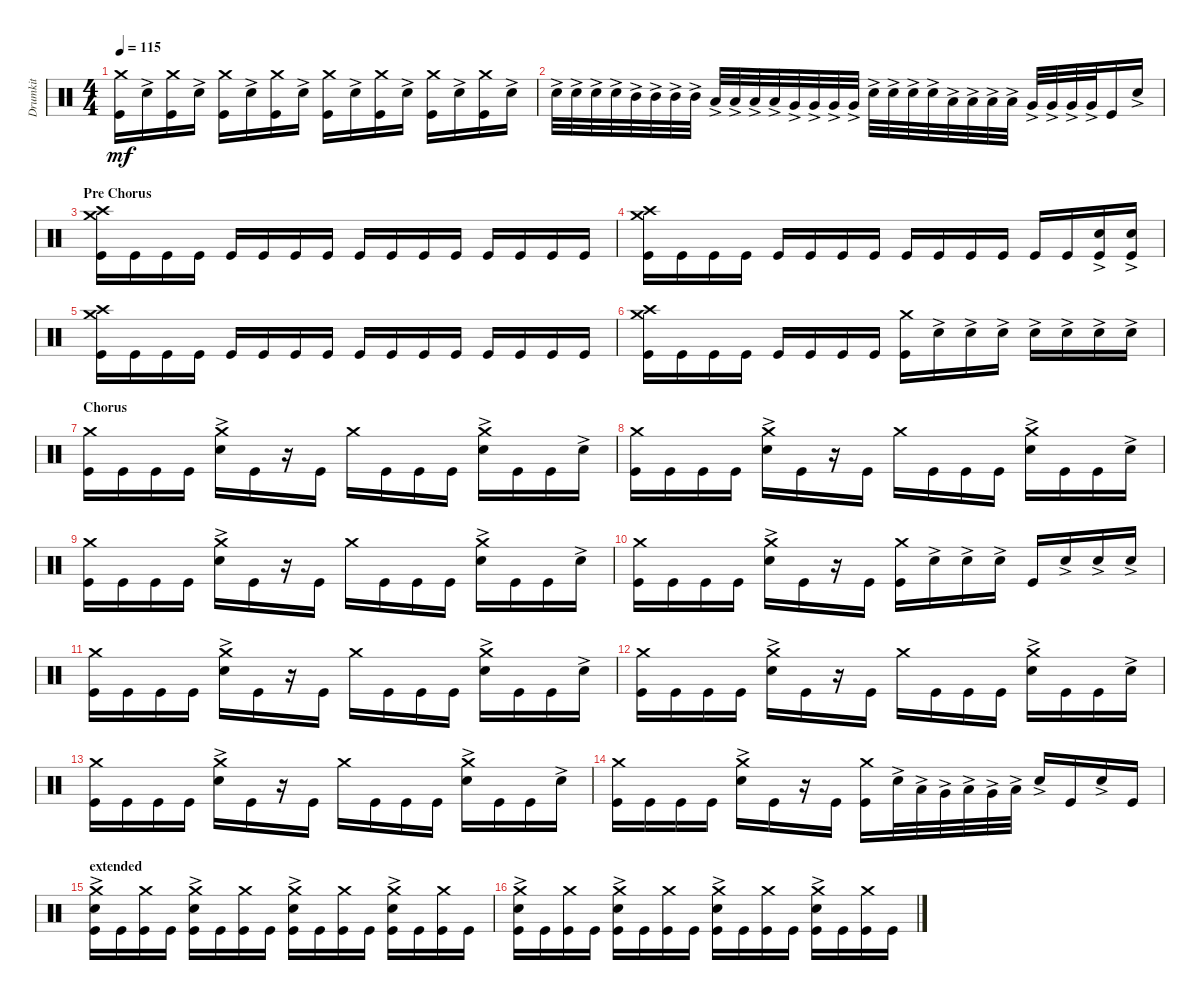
\track ("Drumkit" "Drumkit") {instrument percussion}
\staff {score}
\articulation defaults
\ts (4 4)
\tempo 115
\clef neutral
\ks c
("Kick (hit)" "Crash medium (hit)").16{dy mf} "Snare (hit) 2"{ac}.16 ("Kick (hit)" "Crash medium (hit)").16 "Snare (hit) 2"{ac}.16 ("Kick (hit)" "Crash medium (hit)").16 "Snare (hit) 2"{ac}.16 ("Kick (hit)" "Crash medium (hit)").16 "Snare (hit) 2"{ac}.16 ("Kick (hit)" "Crash medium (hit)").16 "Snare (hit) 2"{ac}.16 ("Kick (hit)" "Crash medium (hit)").16 "Snare (hit) 2"{ac}.16 ("Kick (hit)" "Crash medium (hit)").16 "Snare (hit) 2"{ac}.16 ("Kick (hit)" "Crash medium (hit)").16 "Snare (hit) 2"{ac}.16 |
"Snare (hit) 2"{ac}.32 "Snare (hit) 2"{ac}.32 "Snare (hit) 2"{ac}.32 "Snare (hit) 2"{ac}.32 "Mid Tom (hit)"{ac}.32 "Mid Tom (hit)"{ac}.32 "Mid Tom (hit)"{ac}.32 "Mid Tom (hit)"{ac}.32 "Low Tom (hit)"{ac}.32 "Low Tom (hit)"{ac}.32 "Low Tom (hit)"{ac}.32 "Low Tom (hit)"{ac}.32 "Very Low Tom (hit)"{ac}.32 "Very Low Tom (hit)"{ac}.32 "Very Low Tom (hit)"{ac}.32 "Very Low Tom (hit)"{ac}.32 "Snare (hit) 2"{ac}.32 "Snare (hit) 2"{ac}.32 "Snare (hit) 2"{ac}.32 "Snare (hit) 2"{ac}.32 "Low Tom (hit)"{ac}.32 "Low Tom (hit)"{ac}.32 "Low Tom (hit)"{ac}.32 "Low Tom (hit)"{ac}.32 "Very Low Tom (hit)"{ac}.32 "Very Low Tom (hit)"{ac}.32 "Very Low Tom (hit)"{ac}.32 "Very Low Tom (hit)"{ac}.32 "Kick (hit)".16 "Snare (hit) 2"{ac}.16 |
\section ("" "Pre Chorus")
("Kick (hit)" "Crash medium (hit)" "Crash high (hit)").16 "Kick (hit)".16 "Kick (hit)".16 "Kick (hit)".16 "Kick (hit)".16 "Kick (hit)".16 "Kick (hit)".16 "Kick (hit)".16 "Kick (hit)".16 "Kick (hit)".16 "Kick (hit)".16 "Kick (hit)".16 "Kick (hit)".16 "Kick (hit)".16 "Kick (hit)".16 "Kick (hit)".16 |
("Kick (hit)" "Crash medium (hit)" "Crash high (hit)").16 "Kick (hit)".16 "Kick (hit)".16 "Kick (hit)".16 "Kick (hit)".16 "Kick (hit)".16 "Kick (hit)".16 "Kick (hit)".16 "Kick (hit)".16 "Kick (hit)".16 "Kick (hit)".16 "Kick (hit)".16 "Kick (hit)".16 "Kick (hit)".16 ("Kick (hit)" "Snare (hit) 2"{ac}).16 ("Kick (hit)" "Snare (hit) 2"{ac}).16 |
("Kick (hit)" "Crash medium (hit)" "Crash high (hit)").16 "Kick (hit)".16 "Kick (hit)".16 "Kick (hit)".16 "Kick (hit)".16 "Kick (hit)".16 "Kick (hit)".16 "Kick (hit)".16 "Kick (hit)".16 "Kick (hit)".16 "Kick (hit)".16 "Kick (hit)".16 "Kick (hit)".16 "Kick (hit)".16 "Kick (hit)".16 "Kick (hit)".16 |
("Kick (hit)" "Crash medium (hit)" "Crash high (hit)").16 "Kick (hit)".16 "Kick (hit)".16 "Kick (hit)".16 "Kick (hit)".16 "Kick (hit)".16 "Kick (hit)".16 "Kick (hit)".16 ("Kick (hit)" "Crash medium (hit)").16 "Snare (hit) 2"{ac}.16 "Snare (hit) 2"{ac}.16 "Snare (hit) 2"{ac}.16 "Snare (hit) 2"{ac}.16 "Snare (hit) 2"{ac}.16 "Snare (hit) 2"{ac}.16 "Snare (hit) 2"{ac}.16 |
\section ("" "Chorus")
("Crash medium (hit)" "Kick (hit)").16 "Kick (hit)".16 "Kick (hit)".16 "Kick (hit)".16 ("Crash medium (hit)" "Snare (hit) 2"{ac}).16 "Kick (hit)".16 r.16 "Kick (hit)".16 "Crash medium (hit)".16 "Kick (hit)".16 "Kick (hit)".16 "Kick (hit)".16 ("Crash medium (hit)" "Snare (hit) 2"{ac}).16 "Kick (hit)".16 "Kick (hit)".16 "Snare (hit) 2"{ac}.16 |
("Crash medium (hit)" "Kick (hit)").16 "Kick (hit)".16 "Kick (hit)".16 "Kick (hit)".16 ("Crash medium (hit)" "Snare (hit) 2"{ac}).16 "Kick (hit)".16 r.16 "Kick (hit)".16 "Crash medium (hit)".16 "Kick (hit)".16 "Kick (hit)".16 "Kick (hit)".16 ("Crash medium (hit)" "Snare (hit) 2"{ac}).16 "Kick (hit)".16 "Kick (hit)".16 "Snare (hit) 2"{ac}.16 |
("Crash medium (hit)" "Kick (hit)").16 "Kick (hit)".16 "Kick (hit)".16 "Kick (hit)".16 ("Crash medium (hit)" "Snare (hit) 2"{ac}).16 "Kick (hit)".16 r.16 "Kick (hit)".16 "Crash medium (hit)".16 "Kick (hit)".16 "Kick (hit)".16 "Kick (hit)".16 ("Crash medium (hit)" "Snare (hit) 2"{ac}).16 "Kick (hit)".16 "Kick (hit)".16 "Snare (hit) 2"{ac}.16 |
("Crash medium (hit)" "Kick (hit)").16 "Kick (hit)".16 "Kick (hit)".16 "Kick (hit)".16 ("Crash medium (hit)" "Snare (hit) 2"{ac}).16 "Kick (hit)".16 r.16 "Kick (hit)".16 ("Kick (hit)" "Crash medium (hit)").16 "Snare (hit) 2"{ac}.16 "Snare (hit) 2"{ac}.16 "Snare (hit) 2"{ac}.16 "Kick (hit)".16 "Snare (hit) 2"{ac}.16 "Snare (hit) 2"{ac}.16 "Snare (hit) 2"{ac}.16 |
("Crash medium (hit)" "Kick (hit)").16 "Kick (hit)".16 "Kick (hit)".16 "Kick (hit)".16 ("Crash medium (hit)" "Snare (hit) 2"{ac}).16 "Kick (hit)".16 r.16 "Kick (hit)".16 "Crash medium (hit)".16 "Kick (hit)".16 "Kick (hit)".16 "Kick (hit)".16 ("Crash medium (hit)" "Snare (hit) 2"{ac}).16 "Kick (hit)".16 "Kick (hit)".16 "Snare (hit) 2"{ac}.16 |
("Crash medium (hit)" "Kick (hit)").16 "Kick (hit)".16 "Kick (hit)".16 "Kick (hit)".16 ("Crash medium (hit)" "Snare (hit) 2"{ac}).16 "Kick (hit)".16 r.16 "Kick (hit)".16 "Crash medium (hit)".16 "Kick (hit)".16 "Kick (hit)".16 "Kick (hit)".16 ("Crash medium (hit)" "Snare (hit) 2"{ac}).16 "Kick (hit)".16 "Kick (hit)".16 "Snare (hit) 2"{ac}.16 |
("Crash medium (hit)" "Kick (hit)").16 "Kick (hit)".16 "Kick (hit)".16 "Kick (hit)".16 ("Crash medium (hit)" "Snare (hit) 2"{ac}).16 "Kick (hit)".16 r.16 "Kick (hit)".16 "Crash medium (hit)".16 "Kick (hit)".16 "Kick (hit)".16 "Kick (hit)".16 ("Crash medium (hit)" "Snare (hit) 2"{ac}).16 "Kick (hit)".16 "Kick (hit)".16 "Snare (hit) 2"{ac}.16 |
("Crash medium (hit)" "Kick (hit)").16 "Kick (hit)".16 "Kick (hit)".16 "Kick (hit)".16 ("Crash medium (hit)" "Snare (hit) 2"{ac}).16 "Kick (hit)".16 r.16 "Kick (hit)".16 ("Kick (hit)" "Crash medium (hit)").16 "Snare (hit) 2"{ac}.32 "Low Tom (hit)"{ac}.32 "Very Low Tom (hit)"{ac}.32 "Low Tom (hit)"{ac}.32 "Very Low Tom (hit)"{ac}.32 "Low Floor Tom (hit)"{ac}.32 "Snare (hit) 2"{ac}.16 "Kick (hit)".16 "Snare (hit) 2"{ac}.16 "Kick (hit)".16 |
\section ("" "extended")
("Kick (hit)" "Snare (hit) 2"{ac} "Crash medium (hit)").16 "Kick (hit)".16 ("Kick (hit)" "Crash medium (hit)").16 "Kick (hit)".16 ("Kick (hit)" "Snare (hit) 2"{ac} "Crash medium (hit)").16 "Kick (hit)".16 ("Kick (hit)" "Crash medium (hit)").16 "Kick (hit)".16 ("Kick (hit)" "Snare (hit) 2"{ac} "Crash medium (hit)").16 "Kick (hit)".16 ("Kick (hit)" "Crash medium (hit)").16 "Kick (hit)".16 ("Kick (hit)" "Snare (hit) 2"{ac} "Crash medium (hit)").16 "Kick (hit)".16 ("Kick (hit)" "Crash medium (hit)").16 "Kick (hit)".16 |
("Kick (hit)" "Snare (hit) 2"{ac} "Crash medium (hit)").16 "Kick (hit)".16 ("Kick (hit)" "Crash medium (hit)").16 "Kick (hit)".16 ("Kick (hit)" "Snare (hit) 2"{ac} "Crash medium (hit)").16 "Kick (hit)".16 ("Kick (hit)" "Crash medium (hit)").16 "Kick (hit)".16 ("Kick (hit)" "Snare (hit) 2"{ac} "Crash medium (hit)").16 "Kick (hit)".16 ("Kick (hit)" "Crash medium (hit)").16 "Kick (hit)".16 ("Kick (hit)" "Snare (hit) 2"{ac} "Crash medium (hit)").16 "Kick (hit)".16 ("Kick (hit)" "Crash medium (hit)").16 "Kick (hit)".16
